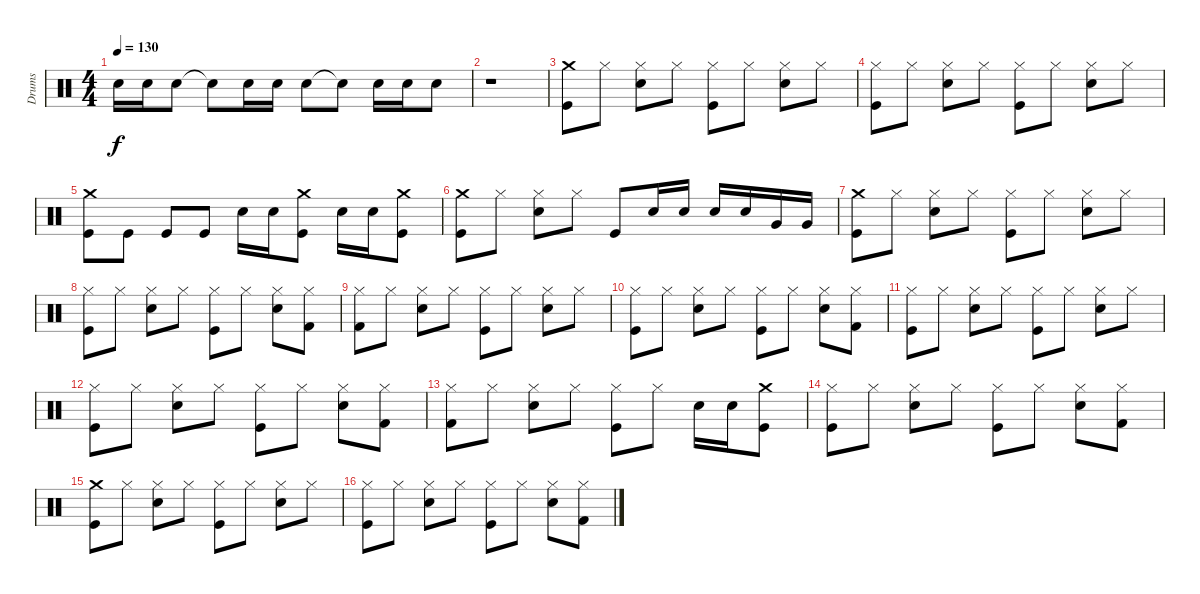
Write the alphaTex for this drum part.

\track ("Drums" "Drums") {instrument percussion}
\staff {score}
\articulation defaults
\ts (4 4)
\tempo 130
\clef neutral
\ks c "Electric Snare (hit)".16{dy f} "Electric Snare (hit)".16 "Electric Snare (hit)".8 "Snare (hit)"{t}.8 "Electric Snare (hit)".16 "Electric Snare (hit)".16 "Electric Snare (hit)".8 "Snare (hit)"{t}.8 "Electric Snare (hit)".16 "Electric Snare (hit)".16 "Electric Snare (hit)".8
|
r.1 |
("Crash medium (hit)" "Kick (hit)").8 "Hi-Hat (closed)".8 ("Hi-Hat (closed)" "Electric Snare (hit)").8 "Hi-Hat (closed)".8 ("Hi-Hat (closed)" "Kick (hit)").8 "Hi-Hat (closed)".8 ("Hi-Hat (closed)" "Electric Snare (hit)").8 "Hi-Hat (closed)".8 |
("Hi-Hat (closed)" "Kick (hit)").8 "Hi-Hat (closed)".8 ("Hi-Hat (closed)" "Electric Snare (hit)").8 "Hi-Hat (closed)".8 ("Hi-Hat (closed)" "Kick (hit)").8 "Hi-Hat (closed)".8 ("Hi-Hat (closed)" "Electric Snare (hit)").8 "Hi-Hat (closed)".8 |
("Crash medium (hit)" "Kick (hit)").8 "Kick (hit)".8 "Kick (hit)".8 "Kick (hit)".8 "Electric Snare (hit)".16 "Electric Snare (hit)".16 ("Crash medium (hit)" "Kick (hit)").8 "Electric Snare (hit)".16 "Electric Snare (hit)".16 ("Crash medium (hit)" "Kick (hit)").8 |
("Crash medium (hit)" "Kick (hit)").8 "Hi-Hat (closed)".8 ("Hi-Hat (closed)" "Electric Snare (hit)").8 "Hi-Hat (closed)".8 "Kick (hit)".8 "Electric Snare (hit)".16 "Electric Snare (hit)".16 "Electric Snare (hit)".16 "Electric Snare (hit)".16 "Very Low Tom (hit)".16 "Very Low Tom (hit)".16 |
("Crash medium (hit)" "Kick (hit)").8 "Hi-Hat (closed)".8 ("Hi-Hat (closed)" "Electric Snare (hit)").8 "Hi-Hat (closed)".8 ("Hi-Hat (closed)" "Kick (hit)").8 "Hi-Hat (closed)".8 ("Hi-Hat (closed)" "Electric Snare (hit)").8 "Hi-Hat (closed)".8 |
("Hi-Hat (closed)" "Kick (hit)").8 "Hi-Hat (closed)".8 ("Hi-Hat (closed)" "Electric Snare (hit)").8 "Hi-Hat (closed)".8 ("Hi-Hat (closed)" "Kick (hit)").8 "Hi-Hat (closed)".8 ("Hi-Hat (closed)" "Electric Snare (hit)").8 ("Hi-Hat (closed)" "Kick (hit) 2").8 |
("Hi-Hat (closed)" "Kick (hit) 2").8 "Hi-Hat (closed)".8 ("Hi-Hat (closed)" "Electric Snare (hit)").8 "Hi-Hat (closed)".8 ("Hi-Hat (closed)" "Kick (hit)").8 "Hi-Hat (closed)".8 ("Hi-Hat (closed)" "Electric Snare (hit)").8 "Hi-Hat (closed)".8 |
("Hi-Hat (closed)" "Kick (hit)").8 "Hi-Hat (closed)".8 ("Hi-Hat (closed)" "Electric Snare (hit)").8 "Hi-Hat (closed)".8 ("Hi-Hat (closed)" "Kick (hit)").8 "Hi-Hat (closed)".8 ("Hi-Hat (closed)" "Electric Snare (hit)").8 ("Hi-Hat (closed)" "Kick (hit) 2").8 |
("Hi-Hat (closed)" "Kick (hit)").8 "Hi-Hat (closed)".8 ("Hi-Hat (closed)" "Electric Snare (hit)").8 "Hi-Hat (closed)".8 ("Hi-Hat (closed)" "Kick (hit)").8 "Hi-Hat (closed)".8 ("Hi-Hat (closed)" "Electric Snare (hit)").8 "Hi-Hat (closed)".8 |
("Hi-Hat (closed)" "Kick (hit)").8 "Hi-Hat (closed)".8 ("Hi-Hat (closed)" "Electric Snare (hit)").8 "Hi-Hat (closed)".8 ("Hi-Hat (closed)" "Kick (hit)").8 "Hi-Hat (closed)".8 ("Hi-Hat (closed)" "Electric Snare (hit)").8 ("Hi-Hat (closed)" "Kick (hit) 2").8 |
("Hi-Hat (closed)" "Kick (hit) 2").8 "Hi-Hat (closed)".8 ("Hi-Hat (closed)" "Electric Snare (hit)").8 "Hi-Hat (closed)".8 ("Hi-Hat (closed)" "Kick (hit)").8 "Hi-Hat (closed)".8 "Electric Snare (hit)".16 "Electric Snare (hit)".16 ("Crash medium (hit)" "Kick (hit)").8 |
("Hi-Hat (closed)" "Kick (hit)").8 "Hi-Hat (closed)".8 ("Hi-Hat (closed)" "Electric Snare (hit)").8 "Hi-Hat (closed)".8 ("Hi-Hat (closed)" "Kick (hit)").8 "Hi-Hat (closed)".8 ("Hi-Hat (closed)" "Electric Snare (hit)").8 ("Hi-Hat (closed)" "Kick (hit) 2").8 |
("Crash medium (hit)" "Kick (hit)").8 "Hi-Hat (closed)".8 ("Hi-Hat (closed)" "Electric Snare (hit)").8 "Hi-Hat (closed)".8 ("Hi-Hat (closed)" "Kick (hit)").8 "Hi-Hat (closed)".8 ("Hi-Hat (closed)" "Electric Snare (hit)").8 "Hi-Hat (closed)".8 |
("Hi-Hat (closed)" "Kick (hit)").8 "Hi-Hat (closed)".8 ("Hi-Hat (closed)" "Electric Snare (hit)").8 "Hi-Hat (closed)".8 ("Hi-Hat (closed)" "Kick (hit)").8 "Hi-Hat (closed)".8 ("Hi-Hat (closed)" "Electric Snare (hit)").8 ("Hi-Hat (closed)" "Kick (hit) 2").8
